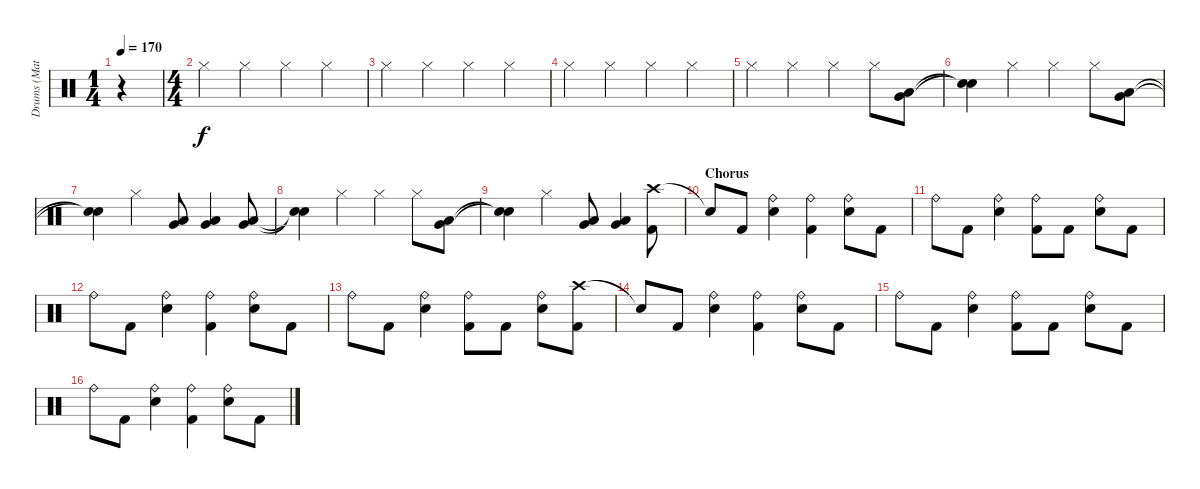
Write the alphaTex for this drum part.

\track ("Drums (Matt)" "Drums (Mat") {instrument percussion}
\staff {score}
\articulation defaults
\ts (1 4)
\tempo 170
\clef neutral
\ks c
r.4{dy f} |
\ts (4 4)
"Hi-Hat (closed)".4 "Hi-Hat (closed)".4 "Hi-Hat (closed)".4 "Hi-Hat (closed)".4 |
"Hi-Hat (closed)".4 "Hi-Hat (closed)".4 "Hi-Hat (closed)".4 "Hi-Hat (closed)".4 |
"Hi-Hat (closed)".4 "Hi-Hat (closed)".4 "Hi-Hat (closed)".4 "Hi-Hat (closed)".4 |
"Hi-Hat (closed)".4 "Hi-Hat (closed)".4 "Hi-Hat (closed)".4 "Hi-Hat (closed)".8 ("Low Tom (hit)" "Very Low Tom (hit)").8 |
("Snare (hit)"{t} "Snare (hit)"{t}).4 "Hi-Hat (closed)".4 "Hi-Hat (closed)".4 "Hi-Hat (closed)".8 ("Low Tom (hit)" "Very Low Tom (hit)").8 |
("Snare (hit)"{t} "Snare (hit)"{t}).4 "Hi-Hat (closed)".4 ("Low Tom (hit)" "Very Low Tom (hit)").8 ("Low Tom (hit)" "Very Low Tom (hit)").4 ("Low Tom (hit)" "Very Low Tom (hit)").8 |
("Snare (hit)"{t} "Snare (hit)"{t}).4 "Hi-Hat (closed)".4 "Hi-Hat (closed)".4 "Hi-Hat (closed)".8 ("Low Tom (hit)" "Very Low Tom (hit)").8 |
("Snare (hit)"{t} "Snare (hit)"{t}).4 "Hi-Hat (closed)".4 ("Low Tom (hit)" "Very Low Tom (hit)").8 ("Low Tom (hit)" "Very Low Tom (hit)").4 ("Crash high (hit)" "Kick (hit) 2").8 |
\section ("" "Chorus")
"Snare (hit)"{t}.8 "Kick (hit) 2".8 ("Ride (bell)" "Snare (hit) 2").4 ("Ride (bell)" "Kick (hit) 2").4 ("Ride (bell)" "Snare (hit) 2").8 "Kick (hit) 2".8 |
"Ride (bell)".8 "Kick (hit) 2".8 ("Ride (bell)" "Snare (hit) 2").4 ("Ride (bell)" "Kick (hit) 2").8 "Kick (hit) 2".8 ("Ride (bell)" "Snare (hit) 2").8 "Kick (hit) 2".8 |
"Ride (bell)".8 "Kick (hit) 2".8 ("Ride (bell)" "Snare (hit) 2").4 ("Ride (bell)" "Kick (hit) 2").4 ("Ride (bell)" "Snare (hit) 2").8 "Kick (hit) 2".8 |
"Ride (bell)".8 "Kick (hit) 2".8 ("Ride (bell)" "Snare (hit) 2").4 ("Ride (bell)" "Kick (hit) 2").8 "Kick (hit) 2".8 ("Ride (bell)" "Snare (hit) 2").8 ("Crash high (hit)" "Kick (hit) 2").8 |
"Snare (hit)"{t}.8 "Kick (hit) 2".8 ("Ride (bell)" "Snare (hit) 2").4 ("Ride (bell)" "Kick (hit) 2").4 ("Ride (bell)" "Snare (hit) 2").8 "Kick (hit) 2".8 |
"Ride (bell)".8 "Kick (hit) 2".8 ("Ride (bell)" "Snare (hit) 2").4 ("Ride (bell)" "Kick (hit) 2").8 "Kick (hit) 2".8 ("Ride (bell)" "Snare (hit) 2").8 "Kick (hit) 2".8 |
"Ride (bell)".8 "Kick (hit) 2".8 ("Ride (bell)" "Snare (hit) 2").4 ("Ride (bell)" "Kick (hit) 2").4 ("Ride (bell)" "Snare (hit) 2").8 "Kick (hit) 2".8
